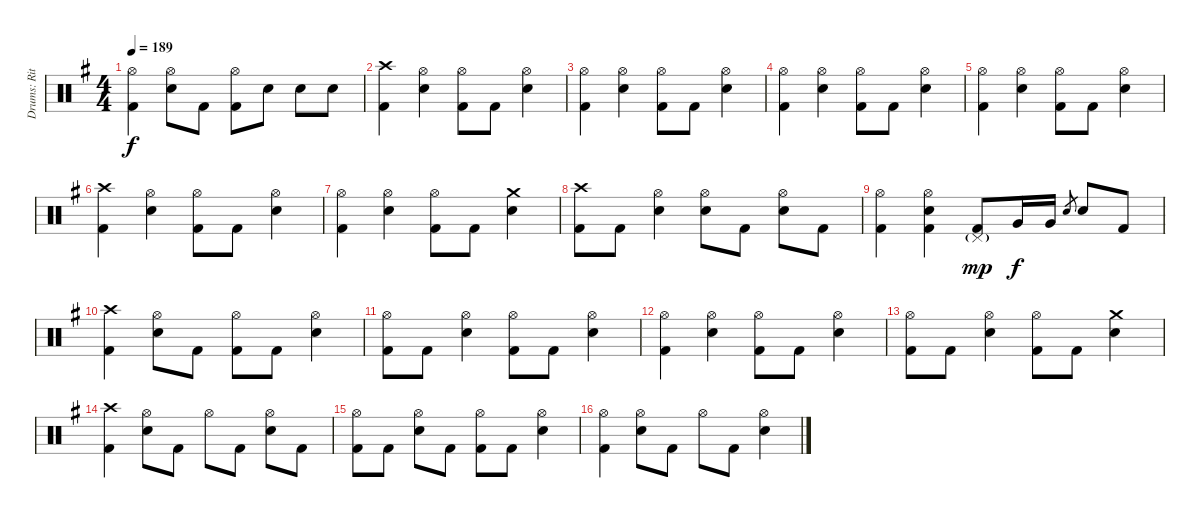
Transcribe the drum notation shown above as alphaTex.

\track ("Drums: Ritsu Tainaka" "Drums: Rit") {instrument percussion}
\staff {score}
\articulation defaults
\ts (4 4)
\tempo 189
\clef neutral
\ks g
("Hi-Hat (open)" "Kick (hit) 2").4{dy f} ("Hi-Hat (open)" "Electric Snare (hit)").8 "Kick (hit) 2".8 ("Hi-Hat (open)" "Kick (hit) 2").8 "Electric Snare (hit)".8 "Electric Snare (hit)".8 "Electric Snare (hit)".8 |
("Crash high (hit)" "Kick (hit) 2").4 ("Hi-Hat (open)" "Electric Snare (hit)").4 ("Hi-Hat (open)" "Kick (hit) 2").8 "Kick (hit) 2".8 ("Hi-Hat (open)" "Electric Snare (hit)").4 |
("Hi-Hat (open)" "Kick (hit) 2").4 ("Hi-Hat (open)" "Electric Snare (hit)").4 ("Hi-Hat (open)" "Kick (hit) 2").8 "Kick (hit) 2".8 ("Hi-Hat (open)" "Electric Snare (hit)").4 |
("Hi-Hat (open)" "Kick (hit) 2").4 ("Hi-Hat (open)" "Electric Snare (hit)").4 ("Hi-Hat (open)" "Kick (hit) 2").8 "Kick (hit) 2".8 ("Hi-Hat (open)" "Electric Snare (hit)").4 |
("Hi-Hat (open)" "Kick (hit) 2").4 ("Hi-Hat (open)" "Electric Snare (hit)").4 ("Hi-Hat (open)" "Kick (hit) 2").8 "Kick (hit) 2".8 ("Hi-Hat (open)" "Electric Snare (hit)").4 |
("Crash high (hit)" "Kick (hit) 2").4 ("Hi-Hat (open)" "Electric Snare (hit)").4 ("Hi-Hat (open)" "Kick (hit) 2").8 "Kick (hit) 2".8 ("Hi-Hat (open)" "Electric Snare (hit)").4 |
("Hi-Hat (open)" "Kick (hit) 2").4 ("Hi-Hat (open)" "Electric Snare (hit)").4 ("Hi-Hat (open)" "Kick (hit) 2").8 "Kick (hit) 2".8 ("Crash medium (hit)" "Electric Snare (hit)").4 |
("Crash high (hit)" "Kick (hit) 2").8 "Kick (hit) 2".8 ("Hi-Hat (open)" "Electric Snare (hit)").4 ("Hi-Hat (open)" "Electric Snare (hit)").8 "Kick (hit) 2".8 ("Hi-Hat (open)" "Electric Snare (hit)").8 "Kick (hit) 2".8 |
("Hi-Hat (open)" "Kick (hit) 2").4 ("Hi-Hat (open)" "Electric Snare (hit)" "Kick (hit) 2").4 ("Pedal Hi-Hat (hit)"{g} "Kick (hit) 2").8{dy mp} "Very Low Tom (hit)".16{dy f} "Very Low Tom (hit)".16 "Electric Snare (hit)".8{gr} "Electric Snare (hit)".8 "Kick (hit) 2".8 |
("Crash high (hit)" "Kick (hit) 2").4 ("Hi-Hat (open)" "Electric Snare (hit)").8 "Kick (hit) 2".8 ("Hi-Hat (open)" "Kick (hit) 2").8 "Kick (hit) 2".8 ("Hi-Hat (open)" "Electric Snare (hit)").4 |
("Hi-Hat (open)" "Kick (hit) 2").8 "Kick (hit) 2".8 ("Hi-Hat (open)" "Electric Snare (hit)").4 ("Hi-Hat (open)" "Kick (hit) 2").8 "Kick (hit) 2".8 ("Hi-Hat (open)" "Electric Snare (hit)").4 |
("Hi-Hat (open)" "Kick (hit) 2").4 ("Hi-Hat (open)" "Electric Snare (hit)").4 ("Hi-Hat (open)" "Kick (hit) 2").8 "Kick (hit) 2".8 ("Hi-Hat (open)" "Electric Snare (hit)").4 |
("Hi-Hat (open)" "Kick (hit) 2").8 "Kick (hit) 2".8 ("Hi-Hat (open)" "Electric Snare (hit)").4 ("Hi-Hat (open)" "Kick (hit) 2").8 "Kick (hit) 2".8 ("Crash medium (hit)" "Electric Snare (hit)").4 |
("Crash high (hit)" "Kick (hit) 2").4 ("Hi-Hat (open)" "Electric Snare (hit)").8 "Kick (hit) 2".8 "Hi-Hat (open)".8 "Kick (hit) 2".8 ("Hi-Hat (open)" "Electric Snare (hit)").8 "Kick (hit) 2".8 |
("Hi-Hat (open)" "Kick (hit) 2").8 "Kick (hit) 2".8 ("Hi-Hat (open)" "Electric Snare (hit)").8 "Kick (hit) 2".8 ("Hi-Hat (open)" "Kick (hit) 2").8 "Kick (hit) 2".8 ("Hi-Hat (open)" "Electric Snare (hit)").4 |
("Hi-Hat (open)" "Kick (hit) 2").4 ("Hi-Hat (open)" "Electric Snare (hit)").8 "Kick (hit) 2".8 "Hi-Hat (open)".8 "Kick (hit) 2".8 ("Hi-Hat (open)" "Electric Snare (hit)").4
